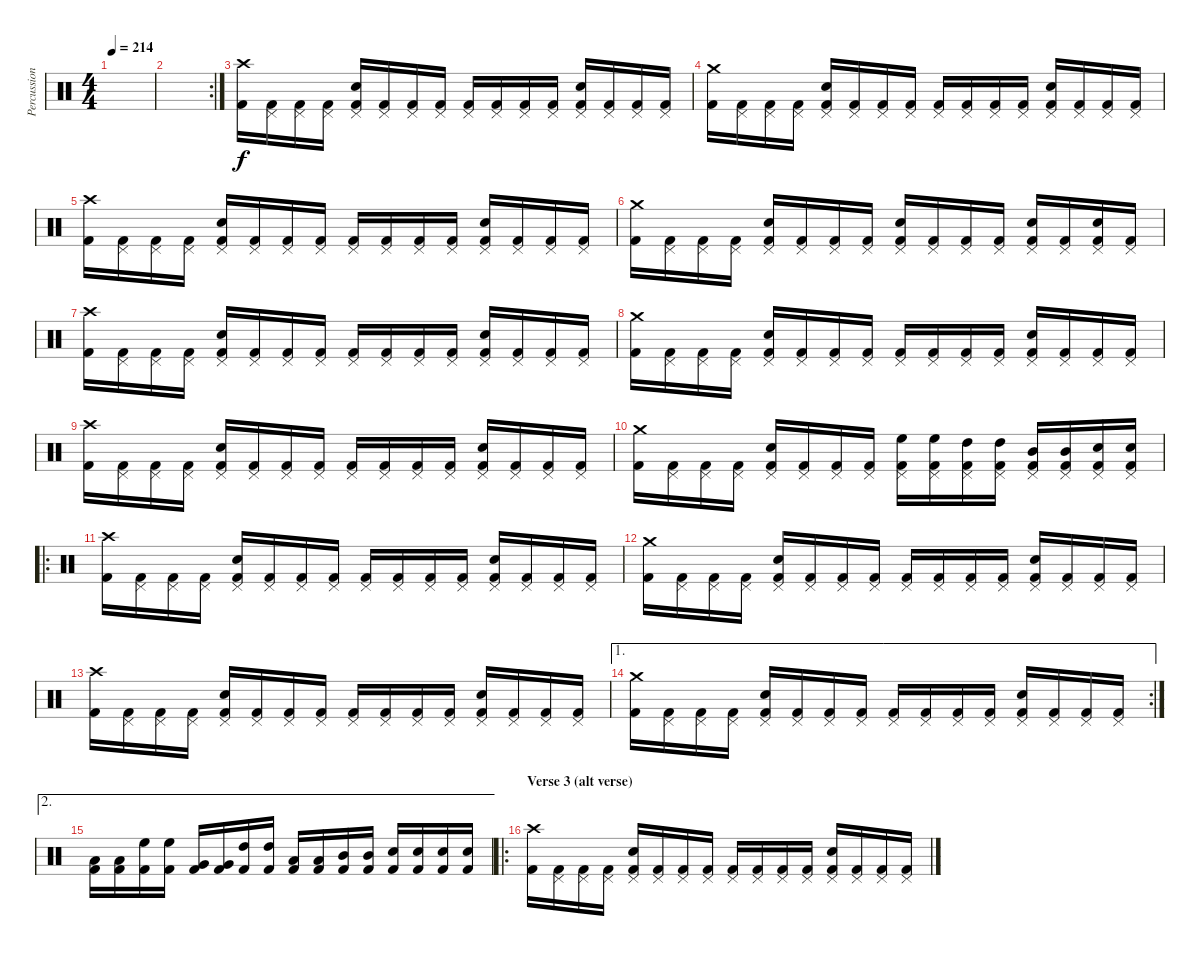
\track ("Percussion" "Percussion") {instrument percussion}
\staff {score}
\articulation defaults
\ts (4 4)
\tempo 214
\clef neutral
\ks c
|
\rc 2
|
("Crash high (hit)" "Kick (hit) 2").16 ("Pedal Hi-Hat (hit)" "Kick (hit) 2").16 ("Pedal Hi-Hat (hit)" "Kick (hit) 2").16 ("Pedal Hi-Hat (hit)" "Kick (hit) 2").16 ("Pedal Hi-Hat (hit)" "Snare (hit) 2" "Kick (hit) 2").16 ("Pedal Hi-Hat (hit)" "Kick (hit) 2").16 ("Pedal Hi-Hat (hit)" "Kick (hit) 2").16 ("Pedal Hi-Hat (hit)" "Kick (hit) 2").16 ("Pedal Hi-Hat (hit)" "Kick (hit) 2").16 ("Pedal Hi-Hat (hit)" "Kick (hit) 2").16 ("Pedal Hi-Hat (hit)" "Kick (hit) 2").16 ("Pedal Hi-Hat (hit)" "Kick (hit) 2").16 ("Pedal Hi-Hat (hit)" "Snare (hit) 2" "Kick (hit) 2").16 ("Pedal Hi-Hat (hit)" "Kick (hit) 2").16 ("Pedal Hi-Hat (hit)" "Kick (hit) 2").16 ("Pedal Hi-Hat (hit)" "Kick (hit) 2").16 |
("Crash medium (hit)" "Kick (hit) 2").16 ("Pedal Hi-Hat (hit)" "Kick (hit) 2").16 ("Pedal Hi-Hat (hit)" "Kick (hit) 2").16 ("Pedal Hi-Hat (hit)" "Kick (hit) 2").16 ("Pedal Hi-Hat (hit)" "Snare (hit) 2" "Kick (hit) 2").16 ("Pedal Hi-Hat (hit)" "Kick (hit) 2").16 ("Pedal Hi-Hat (hit)" "Kick (hit) 2").16 ("Pedal Hi-Hat (hit)" "Kick (hit) 2").16 ("Pedal Hi-Hat (hit)" "Kick (hit) 2").16 ("Pedal Hi-Hat (hit)" "Kick (hit) 2").16 ("Pedal Hi-Hat (hit)" "Kick (hit) 2").16 ("Pedal Hi-Hat (hit)" "Kick (hit) 2").16 ("Pedal Hi-Hat (hit)" "Snare (hit) 2" "Kick (hit) 2").16 ("Pedal Hi-Hat (hit)" "Kick (hit) 2").16 ("Pedal Hi-Hat (hit)" "Kick (hit) 2").16 ("Pedal Hi-Hat (hit)" "Kick (hit) 2").16 |
("Crash high (hit)" "Kick (hit) 2").16 ("Pedal Hi-Hat (hit)" "Kick (hit) 2").16 ("Pedal Hi-Hat (hit)" "Kick (hit) 2").16 ("Pedal Hi-Hat (hit)" "Kick (hit) 2").16 ("Pedal Hi-Hat (hit)" "Snare (hit) 2" "Kick (hit) 2").16 ("Pedal Hi-Hat (hit)" "Kick (hit) 2").16 ("Pedal Hi-Hat (hit)" "Kick (hit) 2").16 ("Pedal Hi-Hat (hit)" "Kick (hit) 2").16 ("Pedal Hi-Hat (hit)" "Kick (hit) 2").16 ("Pedal Hi-Hat (hit)" "Kick (hit) 2").16 ("Pedal Hi-Hat (hit)" "Kick (hit) 2").16 ("Pedal Hi-Hat (hit)" "Kick (hit) 2").16 ("Pedal Hi-Hat (hit)" "Snare (hit) 2" "Kick (hit) 2").16 ("Pedal Hi-Hat (hit)" "Kick (hit) 2").16 ("Pedal Hi-Hat (hit)" "Kick (hit) 2").16 ("Pedal Hi-Hat (hit)" "Kick (hit) 2").16 |
("Crash medium (hit)" "Kick (hit) 2").16 ("Pedal Hi-Hat (hit)" "Kick (hit) 2").16 ("Pedal Hi-Hat (hit)" "Kick (hit) 2").16 ("Pedal Hi-Hat (hit)" "Kick (hit) 2").16 ("Pedal Hi-Hat (hit)" "Snare (hit) 2" "Kick (hit) 2").16 ("Pedal Hi-Hat (hit)" "Kick (hit) 2").16 ("Pedal Hi-Hat (hit)" "Kick (hit) 2").16 ("Pedal Hi-Hat (hit)" "Kick (hit) 2").16 ("Pedal Hi-Hat (hit)" "Snare (hit) 2" "Kick (hit) 2").16 ("Pedal Hi-Hat (hit)" "Kick (hit) 2").16 ("Pedal Hi-Hat (hit)" "Kick (hit) 2").16 ("Pedal Hi-Hat (hit)" "Kick (hit) 2").16 ("Pedal Hi-Hat (hit)" "Snare (hit) 2" "Kick (hit) 2").16 ("Pedal Hi-Hat (hit)" "Kick (hit) 2").16 ("Pedal Hi-Hat (hit)" "Snare (hit) 2" "Kick (hit) 2").16 ("Pedal Hi-Hat (hit)" "Kick (hit) 2").16 |
("Crash high (hit)" "Kick (hit) 2").16 ("Pedal Hi-Hat (hit)" "Kick (hit) 2").16 ("Pedal Hi-Hat (hit)" "Kick (hit) 2").16 ("Pedal Hi-Hat (hit)" "Kick (hit) 2").16 ("Pedal Hi-Hat (hit)" "Snare (hit) 2" "Kick (hit) 2").16 ("Pedal Hi-Hat (hit)" "Kick (hit) 2").16 ("Pedal Hi-Hat (hit)" "Kick (hit) 2").16 ("Pedal Hi-Hat (hit)" "Kick (hit) 2").16 ("Pedal Hi-Hat (hit)" "Kick (hit) 2").16 ("Pedal Hi-Hat (hit)" "Kick (hit) 2").16 ("Pedal Hi-Hat (hit)" "Kick (hit) 2").16 ("Pedal Hi-Hat (hit)" "Kick (hit) 2").16 ("Pedal Hi-Hat (hit)" "Snare (hit) 2" "Kick (hit) 2").16 ("Pedal Hi-Hat (hit)" "Kick (hit) 2").16 ("Pedal Hi-Hat (hit)" "Kick (hit) 2").16 ("Pedal Hi-Hat (hit)" "Kick (hit) 2").16 |
("Crash medium (hit)" "Kick (hit) 2").16 ("Pedal Hi-Hat (hit)" "Kick (hit) 2").16 ("Pedal Hi-Hat (hit)" "Kick (hit) 2").16 ("Pedal Hi-Hat (hit)" "Kick (hit) 2").16 ("Pedal Hi-Hat (hit)" "Snare (hit) 2" "Kick (hit) 2").16 ("Pedal Hi-Hat (hit)" "Kick (hit) 2").16 ("Pedal Hi-Hat (hit)" "Kick (hit) 2").16 ("Pedal Hi-Hat (hit)" "Kick (hit) 2").16 ("Pedal Hi-Hat (hit)" "Kick (hit) 2").16 ("Pedal Hi-Hat (hit)" "Kick (hit) 2").16 ("Pedal Hi-Hat (hit)" "Kick (hit) 2").16 ("Pedal Hi-Hat (hit)" "Kick (hit) 2").16 ("Pedal Hi-Hat (hit)" "Snare (hit) 2" "Kick (hit) 2").16 ("Pedal Hi-Hat (hit)" "Kick (hit) 2").16 ("Pedal Hi-Hat (hit)" "Kick (hit) 2").16 ("Pedal Hi-Hat (hit)" "Kick (hit) 2").16 |
("Crash high (hit)" "Kick (hit) 2").16 ("Pedal Hi-Hat (hit)" "Kick (hit) 2").16 ("Pedal Hi-Hat (hit)" "Kick (hit) 2").16 ("Pedal Hi-Hat (hit)" "Kick (hit) 2").16 ("Pedal Hi-Hat (hit)" "Snare (hit) 2" "Kick (hit) 2").16 ("Pedal Hi-Hat (hit)" "Kick (hit) 2").16 ("Pedal Hi-Hat (hit)" "Kick (hit) 2").16 ("Pedal Hi-Hat (hit)" "Kick (hit) 2").16 ("Pedal Hi-Hat (hit)" "Kick (hit) 2").16 ("Pedal Hi-Hat (hit)" "Kick (hit) 2").16 ("Pedal Hi-Hat (hit)" "Kick (hit) 2").16 ("Pedal Hi-Hat (hit)" "Kick (hit) 2").16 ("Pedal Hi-Hat (hit)" "Snare (hit) 2" "Kick (hit) 2").16 ("Pedal Hi-Hat (hit)" "Kick (hit) 2").16 ("Pedal Hi-Hat (hit)" "Kick (hit) 2").16 ("Pedal Hi-Hat (hit)" "Kick (hit) 2").16 |
("Crash medium (hit)" "Kick (hit) 2").16 ("Pedal Hi-Hat (hit)" "Kick (hit) 2").16 ("Pedal Hi-Hat (hit)" "Kick (hit) 2").16 ("Pedal Hi-Hat (hit)" "Kick (hit) 2").16 ("Pedal Hi-Hat (hit)" "Snare (hit) 2" "Kick (hit) 2").16 ("Pedal Hi-Hat (hit)" "Kick (hit) 2").16 ("Pedal Hi-Hat (hit)" "Kick (hit) 2").16 ("Pedal Hi-Hat (hit)" "Kick (hit) 2").16 ("Pedal Hi-Hat (hit)" "High Floor Tom (hit)" "Kick (hit) 2").16 ("Pedal Hi-Hat (hit)" "High Floor Tom (hit)" "Kick (hit) 2").16 ("Pedal Hi-Hat (hit)" "High Tom (hit)" "Kick (hit) 2").16 ("Pedal Hi-Hat (hit)" "High Tom (hit)" "Kick (hit) 2").16 ("Pedal Hi-Hat (hit)" "Mid Tom (hit)" "Kick (hit) 2").16 ("Pedal Hi-Hat (hit)" "Mid Tom (hit)" "Kick (hit) 2").16 ("Pedal Hi-Hat (hit)" "Snare (hit) 2" "Kick (hit) 2").16 ("Pedal Hi-Hat (hit)" "Snare (hit) 2" "Kick (hit) 2").16 |
\ro
("Crash high (hit)" "Kick (hit) 2").16 ("Pedal Hi-Hat (hit)" "Kick (hit) 2").16 ("Pedal Hi-Hat (hit)" "Kick (hit) 2").16 ("Pedal Hi-Hat (hit)" "Kick (hit) 2").16 ("Pedal Hi-Hat (hit)" "Snare (hit) 2" "Kick (hit) 2").16 ("Pedal Hi-Hat (hit)" "Kick (hit) 2").16 ("Pedal Hi-Hat (hit)" "Kick (hit) 2").16 ("Pedal Hi-Hat (hit)" "Kick (hit) 2").16 ("Pedal Hi-Hat (hit)" "Kick (hit) 2").16 ("Pedal Hi-Hat (hit)" "Kick (hit) 2").16 ("Pedal Hi-Hat (hit)" "Kick (hit) 2").16 ("Pedal Hi-Hat (hit)" "Kick (hit) 2").16 ("Pedal Hi-Hat (hit)" "Snare (hit) 2" "Kick (hit) 2").16 ("Pedal Hi-Hat (hit)" "Kick (hit) 2").16 ("Pedal Hi-Hat (hit)" "Kick (hit) 2").16 ("Pedal Hi-Hat (hit)" "Kick (hit) 2").16 |
("Crash medium (hit)" "Kick (hit) 2").16 ("Pedal Hi-Hat (hit)" "Kick (hit) 2").16 ("Pedal Hi-Hat (hit)" "Kick (hit) 2").16 ("Pedal Hi-Hat (hit)" "Kick (hit) 2").16 ("Pedal Hi-Hat (hit)" "Snare (hit) 2" "Kick (hit) 2").16 ("Pedal Hi-Hat (hit)" "Kick (hit) 2").16 ("Pedal Hi-Hat (hit)" "Kick (hit) 2").16 ("Pedal Hi-Hat (hit)" "Kick (hit) 2").16 ("Pedal Hi-Hat (hit)" "Kick (hit) 2").16 ("Pedal Hi-Hat (hit)" "Kick (hit) 2").16 ("Pedal Hi-Hat (hit)" "Kick (hit) 2").16 ("Pedal Hi-Hat (hit)" "Kick (hit) 2").16 ("Pedal Hi-Hat (hit)" "Snare (hit) 2" "Kick (hit) 2").16 ("Pedal Hi-Hat (hit)" "Kick (hit) 2").16 ("Pedal Hi-Hat (hit)" "Kick (hit) 2").16 ("Pedal Hi-Hat (hit)" "Kick (hit) 2").16 |
("Crash high (hit)" "Kick (hit) 2").16 ("Pedal Hi-Hat (hit)" "Kick (hit) 2").16 ("Pedal Hi-Hat (hit)" "Kick (hit) 2").16 ("Pedal Hi-Hat (hit)" "Kick (hit) 2").16 ("Pedal Hi-Hat (hit)" "Snare (hit) 2" "Kick (hit) 2").16 ("Pedal Hi-Hat (hit)" "Kick (hit) 2").16 ("Pedal Hi-Hat (hit)" "Kick (hit) 2").16 ("Pedal Hi-Hat (hit)" "Kick (hit) 2").16 ("Pedal Hi-Hat (hit)" "Kick (hit) 2").16 ("Pedal Hi-Hat (hit)" "Kick (hit) 2").16 ("Pedal Hi-Hat (hit)" "Kick (hit) 2").16 ("Pedal Hi-Hat (hit)" "Kick (hit) 2").16 ("Pedal Hi-Hat (hit)" "Snare (hit) 2" "Kick (hit) 2").16 ("Pedal Hi-Hat (hit)" "Kick (hit) 2").16 ("Pedal Hi-Hat (hit)" "Kick (hit) 2").16 ("Pedal Hi-Hat (hit)" "Kick (hit) 2").16 |
\ae 1
\rc 2
("Crash medium (hit)" "Kick (hit) 2").16 ("Pedal Hi-Hat (hit)" "Kick (hit) 2").16 ("Pedal Hi-Hat (hit)" "Kick (hit) 2").16 ("Pedal Hi-Hat (hit)" "Kick (hit) 2").16 ("Pedal Hi-Hat (hit)" "Snare (hit) 2" "Kick (hit) 2").16 ("Pedal Hi-Hat (hit)" "Kick (hit) 2").16 ("Pedal Hi-Hat (hit)" "Kick (hit) 2").16 ("Pedal Hi-Hat (hit)" "Kick (hit) 2").16 ("Pedal Hi-Hat (hit)" "Kick (hit) 2").16 ("Pedal Hi-Hat (hit)" "Kick (hit) 2").16 ("Pedal Hi-Hat (hit)" "Kick (hit) 2").16 ("Pedal Hi-Hat (hit)" "Kick (hit) 2").16 ("Pedal Hi-Hat (hit)" "Snare (hit) 2" "Kick (hit) 2").16 ("Pedal Hi-Hat (hit)" "Kick (hit) 2").16 ("Pedal Hi-Hat (hit)" "Kick (hit) 2").16 ("Pedal Hi-Hat (hit)" "Kick (hit) 2").16 |
\ae 2
("Low Floor Tom (hit)" "Kick (hit) 2").16 ("Low Floor Tom (hit)" "Kick (hit) 2").16 ("High Floor Tom (hit)" "Kick (hit) 2").16 ("High Floor Tom (hit)" "Kick (hit) 2").16 ("Very Low Tom (hit)" "Kick (hit) 2").16 ("Very Low Tom (hit)" "Kick (hit) 2").16 ("High Tom (hit)" "Kick (hit) 2").16 ("High Tom (hit)" "Kick (hit) 2").16 ("Low Tom (hit)" "Kick (hit) 2").16 ("Low Tom (hit)" "Kick (hit) 2").16 ("Mid Tom (hit)" "Kick (hit) 2").16 ("Mid Tom (hit)" "Kick (hit) 2").16 ("Snare (hit) 2" "Kick (hit) 2").16 ("Snare (hit) 2" "Kick (hit) 2").16 ("Snare (hit) 2" "Kick (hit) 2").16 ("Snare (hit) 2" "Kick (hit) 2").16 |
\ro
\section ("" "Verse 3 (alt verse)")
("Crash high (hit)" "Kick (hit) 2").16 ("Pedal Hi-Hat (hit)" "Kick (hit) 2").16 ("Pedal Hi-Hat (hit)" "Kick (hit) 2").16 ("Pedal Hi-Hat (hit)" "Kick (hit) 2").16 ("Pedal Hi-Hat (hit)" "Snare (hit) 2" "Kick (hit) 2").16 ("Pedal Hi-Hat (hit)" "Kick (hit) 2").16 ("Pedal Hi-Hat (hit)" "Kick (hit) 2").16 ("Pedal Hi-Hat (hit)" "Kick (hit) 2").16 ("Pedal Hi-Hat (hit)" "Kick (hit) 2").16 ("Pedal Hi-Hat (hit)" "Kick (hit) 2").16 ("Pedal Hi-Hat (hit)" "Kick (hit) 2").16 ("Pedal Hi-Hat (hit)" "Kick (hit) 2").16 ("Pedal Hi-Hat (hit)" "Snare (hit) 2" "Kick (hit) 2").16 ("Pedal Hi-Hat (hit)" "Kick (hit) 2").16 ("Pedal Hi-Hat (hit)" "Kick (hit) 2").16 ("Pedal Hi-Hat (hit)" "Kick (hit) 2").16
